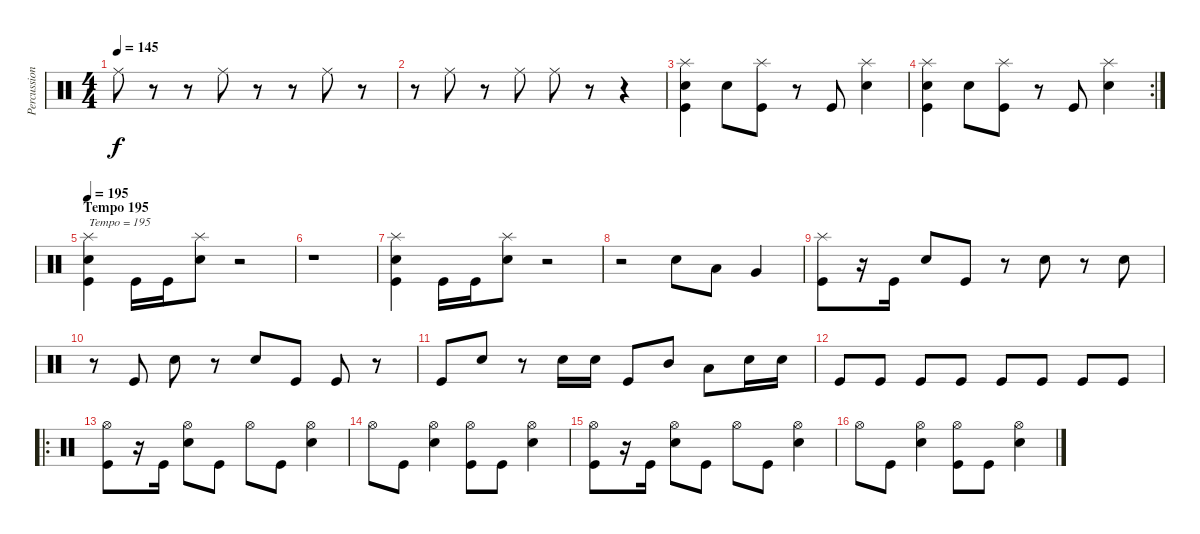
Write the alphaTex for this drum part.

\track ("Percussion" "Percussion") {instrument percussion}
\staff {score}
\articulation defaults
\ts (4 4)
\tempo 145
\clef neutral
\ks c "Ride (middle)".8{dy f}
r.8 r.8 "Ride (middle)".8 r.8 r.8 "Ride (middle)".8 r.8 |
r.8 "Ride (middle)".8 r.8 "Ride (middle)".8 "Ride (middle)".8 r.8 r.4 |
("Splash (hit)" "Snare (hit) 2" "Kick (hit)").4 "Snare (hit) 2".8 ("Splash (hit)" "Kick (hit)").8 r.8 "Kick (hit)".8 ("Splash (hit)" "Snare (hit) 2").4 |
\rc 2
("Splash (hit)" "Snare (hit) 2" "Kick (hit)").4 "Snare (hit) 2".8 ("Splash (hit)" "Kick (hit)").8 r.8 "Kick (hit)".8 ("Splash (hit)" "Snare (hit) 2").4 |
\section ("" "Tempo 195")
\tempo 195
("Splash (hit)" "Snare (hit) 2" "Kick (hit)").4{txt "Tempo = 195"} "Kick (hit)".16 "Kick (hit)".16 ("Splash (hit)" "Snare (hit) 2").8 r.2 |
r.1 |
("Splash (hit)" "Snare (hit) 2" "Kick (hit)").4 "Kick (hit)".16 "Kick (hit)".16 ("Splash (hit)" "Snare (hit) 2").8 r.2 |
r.2 "Snare (hit) 2".8 "Low Tom (hit)".8 "Very Low Tom (hit)".4 |
("Splash (hit)" "Kick (hit)").8 r.16 "Kick (hit)".16 "Snare (hit) 2".8 "Kick (hit)".8 r.8 "Snare (hit) 2".8 r.8 "Snare (hit) 2".8 |
r.8 "Kick (hit)".8 "Snare (hit) 2".8 r.8 "Snare (hit) 2".8 "Kick (hit)".8 "Kick (hit)".8 r.8 |
"Kick (hit)".8 "Snare (hit) 2".8 r.8 "Snare (hit) 2".16 "Snare (hit) 2".16 "Kick (hit)".8 "Mid Tom (hit)".8 "Low Tom (hit)".8 "Snare (hit) 2".16 "Snare (hit) 2".16 |
"Kick (hit)".8 "Kick (hit)".8 "Kick (hit)".8 "Kick (hit)".8 "Kick (hit)".8 "Kick (hit)".8 "Kick (hit)".8 "Kick (hit)".8 |
\ro
("Hi-Hat (open)" "Kick (hit)").8 r.16 "Kick (hit)".16 ("Hi-Hat (open)" "Snare (hit) 2").8 "Kick (hit)".8 "Hi-Hat (open)".8 "Kick (hit)".8 ("Hi-Hat (open)" "Snare (hit) 2").4 |
"Hi-Hat (open)".8 "Kick (hit)".8 ("Hi-Hat (open)" "Snare (hit) 2").4 ("Hi-Hat (open)" "Kick (hit)").8 "Kick (hit)".8 ("Hi-Hat (open)" "Snare (hit) 2").4 |
("Hi-Hat (open)" "Kick (hit)").8 r.16 "Kick (hit)".16 ("Hi-Hat (open)" "Snare (hit) 2").8 "Kick (hit)".8 "Hi-Hat (open)".8 "Kick (hit)".8 ("Hi-Hat (open)" "Snare (hit) 2").4 |
"Hi-Hat (open)".8 "Kick (hit)".8 ("Hi-Hat (open)" "Snare (hit) 2").4 ("Hi-Hat (open)" "Kick (hit)").8 "Kick (hit)".8 ("Hi-Hat (open)" "Snare (hit) 2").4
